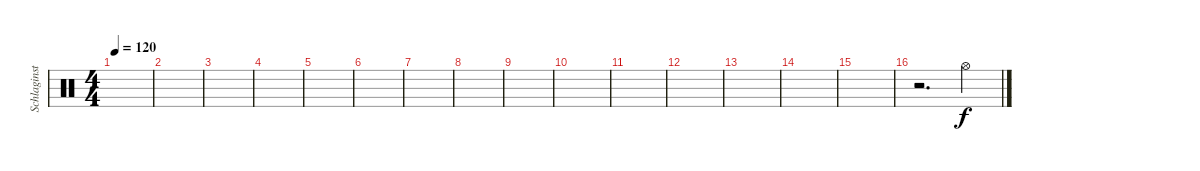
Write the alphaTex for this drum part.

\track ("Schlaginstrumente - Auswahl" "Schlaginst") {instrument percussion}
\staff {score}
\articulation defaults
\ts (4 4)
\tempo 120
\clef neutral
\ks c
|
|
|
|
|
|
|
|
|
|
|
|
|
|
|
r.2{d} "Hi-Hat (open)".4
